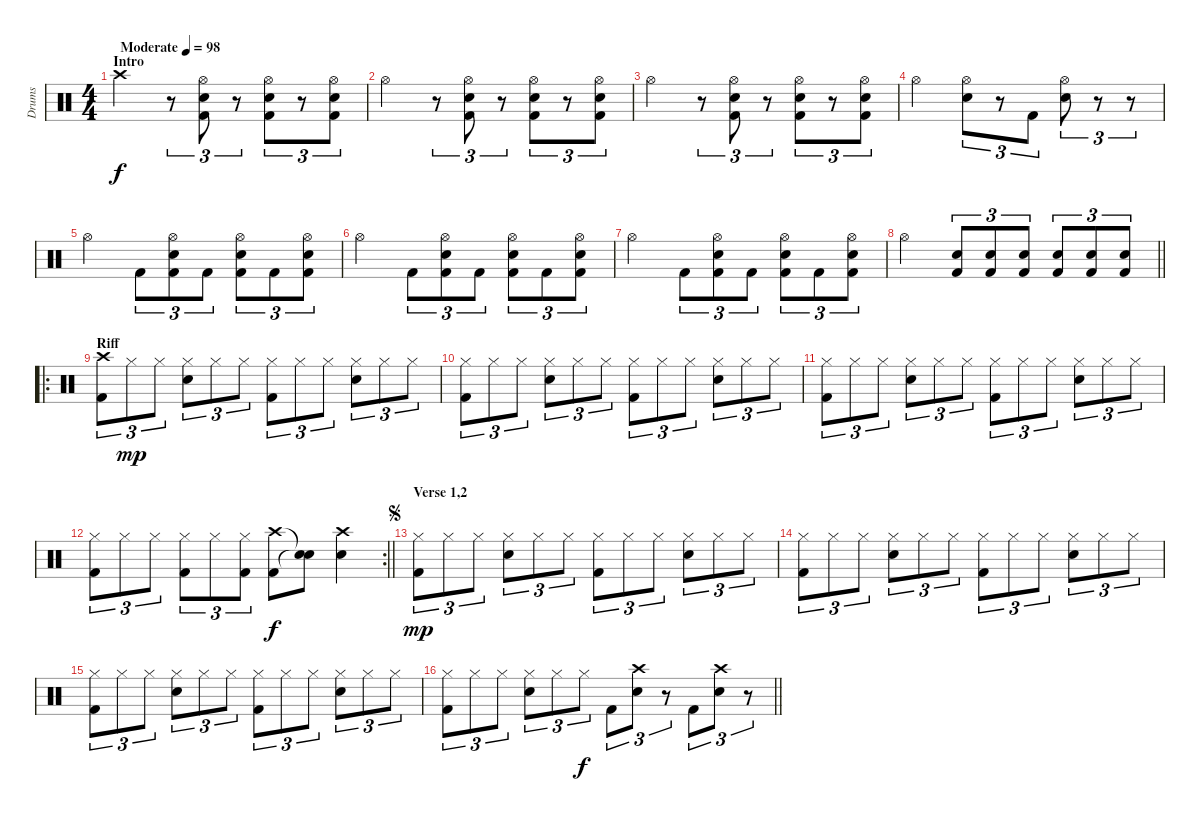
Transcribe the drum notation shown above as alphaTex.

\track ("Drums" "Drums") {instrument percussion}
\staff {score}
\articulation defaults
\ts (4 4)
\section ("" "Intro")
\tempo (98 "Moderate")
\clef neutral
\ks c "Crash high (hit)".2{dy f}
r.8{tu (3 2)} ("Hi-Hat (open)" "Snare (hit) 2" "Kick (hit) 2").8{tu (3 2)} r.8{tu (3 2)} ("Hi-Hat (open)" "Snare (hit) 2" "Kick (hit) 2").8{tu (3 2)} r.8{tu (3 2)} ("Hi-Hat (open)" "Snare (hit) 2" "Kick (hit) 2").8{tu (3 2)} |
"Hi-Hat (open)".2 r.8{tu (3 2)} ("Hi-Hat (open)" "Snare (hit) 2" "Kick (hit) 2").8{tu (3 2)} r.8{tu (3 2)} ("Hi-Hat (open)" "Snare (hit) 2" "Kick (hit) 2").8{tu (3 2)} r.8{tu (3 2)} ("Hi-Hat (open)" "Snare (hit) 2" "Kick (hit) 2").8{tu (3 2)} |
"Hi-Hat (open)".2 r.8{tu (3 2)} ("Hi-Hat (open)" "Snare (hit) 2" "Kick (hit) 2").8{tu (3 2)} r.8{tu (3 2)} ("Hi-Hat (open)" "Snare (hit) 2" "Kick (hit) 2").8{tu (3 2)} r.8{tu (3 2)} ("Hi-Hat (open)" "Snare (hit) 2" "Kick (hit) 2").8{tu (3 2)} |
"Hi-Hat (open)".2 ("Hi-Hat (open)" "Snare (hit) 2").8{tu (3 2)} r.8{tu (3 2)} "Kick (hit) 2".8{tu (3 2)} ("Hi-Hat (open)" "Snare (hit) 2").8{tu (3 2)} r.8{tu (3 2)} r.8{tu (3 2)} |
"Hi-Hat (open)".2 "Kick (hit) 2".8{tu (3 2)} ("Hi-Hat (open)" "Snare (hit) 2" "Kick (hit) 2").8{tu (3 2)} "Kick (hit) 2".8{tu (3 2)} ("Hi-Hat (open)" "Snare (hit) 2" "Kick (hit) 2").8{tu (3 2)} "Kick (hit) 2".8{tu (3 2)} ("Hi-Hat (open)" "Snare (hit) 2" "Kick (hit) 2").8{tu (3 2)} |
"Hi-Hat (open)".2 "Kick (hit) 2".8{tu (3 2)} ("Hi-Hat (open)" "Snare (hit) 2" "Kick (hit) 2").8{tu (3 2)} "Kick (hit) 2".8{tu (3 2)} ("Hi-Hat (open)" "Snare (hit) 2" "Kick (hit) 2").8{tu (3 2)} "Kick (hit) 2".8{tu (3 2)} ("Hi-Hat (open)" "Snare (hit) 2" "Kick (hit) 2").8{tu (3 2)} |
"Hi-Hat (open)".2 "Kick (hit) 2".8{tu (3 2)} ("Hi-Hat (open)" "Snare (hit) 2" "Kick (hit) 2").8{tu (3 2)} "Kick (hit) 2".8{tu (3 2)} ("Hi-Hat (open)" "Snare (hit) 2" "Kick (hit) 2").8{tu (3 2)} "Kick (hit) 2".8{tu (3 2)} ("Hi-Hat (open)" "Snare (hit) 2" "Kick (hit) 2").8{tu (3 2)} |
\barLineRight lightlight "Hi-Hat (open)".2
("Snare (hit) 2" "Kick (hit) 2").8{tu (3 2)} ("Snare (hit) 2" "Kick (hit) 2").8{tu (3 2)} ("Snare (hit) 2" "Kick (hit) 2").8{tu (3 2)} ("Snare (hit) 2" "Kick (hit) 2").8{tu (3 2)} ("Snare (hit) 2" "Kick (hit) 2").8{tu (3 2)} ("Snare (hit) 2" "Kick (hit) 2").8{tu (3 2)} |
\ro
\section ("" "Riff")
("Crash high (hit)" "Kick (hit) 2").8{tu (3 2)} "Hi-Hat (closed)".8{tu (3 2) dy mp} "Hi-Hat (closed)".8{tu (3 2)} ("Hi-Hat (closed)" "Snare (hit) 2").8{tu (3 2)} "Hi-Hat (closed)".8{tu (3 2)} "Hi-Hat (closed)".8{tu (3 2)} ("Hi-Hat (closed)" "Kick (hit) 2").8{tu (3 2)} "Hi-Hat (closed)".8{tu (3 2)} "Hi-Hat (closed)".8{tu (3 2)} ("Hi-Hat (closed)" "Snare (hit) 2").8{tu (3 2)} "Hi-Hat (closed)".8{tu (3 2)} "Hi-Hat (closed)".8{tu (3 2)} |
("Hi-Hat (closed)" "Kick (hit) 2").8{tu (3 2)} "Hi-Hat (closed)".8{tu (3 2)} "Hi-Hat (closed)".8{tu (3 2)} ("Hi-Hat (closed)" "Snare (hit) 2").8{tu (3 2)} "Hi-Hat (closed)".8{tu (3 2)} "Hi-Hat (closed)".8{tu (3 2)} ("Hi-Hat (closed)" "Kick (hit) 2").8{tu (3 2)} "Hi-Hat (closed)".8{tu (3 2)} "Hi-Hat (closed)".8{tu (3 2)} ("Hi-Hat (closed)" "Snare (hit) 2").8{tu (3 2)} "Hi-Hat (closed)".8{tu (3 2)} "Hi-Hat (closed)".8{tu (3 2)} |
("Hi-Hat (closed)" "Kick (hit) 2").8{tu (3 2)} "Hi-Hat (closed)".8{tu (3 2)} "Hi-Hat (closed)".8{tu (3 2)} ("Hi-Hat (closed)" "Snare (hit) 2").8{tu (3 2)} "Hi-Hat (closed)".8{tu (3 2)} "Hi-Hat (closed)".8{tu (3 2)} ("Hi-Hat (closed)" "Kick (hit) 2").8{tu (3 2)} "Hi-Hat (closed)".8{tu (3 2)} "Hi-Hat (closed)".8{tu (3 2)} ("Hi-Hat (closed)" "Snare (hit) 2").8{tu (3 2)} "Hi-Hat (closed)".8{tu (3 2)} "Hi-Hat (closed)".8{tu (3 2)} |
\rc 2
\barLineRight lightlight
("Hi-Hat (closed)" "Kick (hit) 2").8{tu (3 2)} "Hi-Hat (closed)".8{tu (3 2)} "Hi-Hat (closed)".8{tu (3 2)} ("Hi-Hat (closed)" "Kick (hit) 2").8{tu (3 2)} "Hi-Hat (closed)".8{tu (3 2)} ("Hi-Hat (closed)" "Kick (hit) 2").8{tu (3 2)} ("Crash high (hit)" "Kick (hit) 2").8{dy f} ("Snare (hit)"{t} "Snare (hit)"{t}).8 ("Crash high (hit)" "Electric Snare (hit)").4 |
\section ("" "Verse 1,2")
\jump segno
("Hi-Hat (closed)" "Kick (hit) 2").8{tu (3 2) dy mp} "Hi-Hat (closed)".8{tu (3 2)} "Hi-Hat (closed)".8{tu (3 2)} ("Hi-Hat (closed)" "Snare (hit) 2").8{tu (3 2)} "Hi-Hat (closed)".8{tu (3 2)} "Hi-Hat (closed)".8{tu (3 2)} ("Hi-Hat (closed)" "Kick (hit) 2").8{tu (3 2)} "Hi-Hat (closed)".8{tu (3 2)} "Hi-Hat (closed)".8{tu (3 2)} ("Hi-Hat (closed)" "Snare (hit) 2").8{tu (3 2)} "Hi-Hat (closed)".8{tu (3 2)} "Hi-Hat (closed)".8{tu (3 2)} |
("Hi-Hat (closed)" "Kick (hit) 2").8{tu (3 2)} "Hi-Hat (closed)".8{tu (3 2)} "Hi-Hat (closed)".8{tu (3 2)} ("Hi-Hat (closed)" "Snare (hit) 2").8{tu (3 2)} "Hi-Hat (closed)".8{tu (3 2)} "Hi-Hat (closed)".8{tu (3 2)} ("Hi-Hat (closed)" "Kick (hit) 2").8{tu (3 2)} "Hi-Hat (closed)".8{tu (3 2)} "Hi-Hat (closed)".8{tu (3 2)} ("Hi-Hat (closed)" "Snare (hit) 2").8{tu (3 2)} "Hi-Hat (closed)".8{tu (3 2)} "Hi-Hat (closed)".8{tu (3 2)} |
("Hi-Hat (closed)" "Kick (hit) 2").8{tu (3 2)} "Hi-Hat (closed)".8{tu (3 2)} "Hi-Hat (closed)".8{tu (3 2)} ("Hi-Hat (closed)" "Snare (hit) 2").8{tu (3 2)} "Hi-Hat (closed)".8{tu (3 2)} "Hi-Hat (closed)".8{tu (3 2)} ("Hi-Hat (closed)" "Kick (hit) 2").8{tu (3 2)} "Hi-Hat (closed)".8{tu (3 2)} "Hi-Hat (closed)".8{tu (3 2)} ("Hi-Hat (closed)" "Snare (hit) 2").8{tu (3 2)} "Hi-Hat (closed)".8{tu (3 2)} "Hi-Hat (closed)".8{tu (3 2)} |
\barLineRight lightlight
("Hi-Hat (closed)" "Kick (hit) 2").8{tu (3 2)} "Hi-Hat (closed)".8{tu (3 2)} "Hi-Hat (closed)".8{tu (3 2)} ("Hi-Hat (closed)" "Snare (hit) 2").8{tu (3 2)} "Hi-Hat (closed)".8{tu (3 2)} "Hi-Hat (closed)".8{tu (3 2) dy f} "Kick (hit) 2".8{tu (3 2)} ("Crash high (hit)" "Snare (hit) 2").8{tu (3 2)} r.8{tu (3 2)} "Kick (hit) 2".8{tu (3 2)} ("Crash high (hit)" "Snare (hit) 2").8{tu (3 2)} r.8{tu (3 2)}
